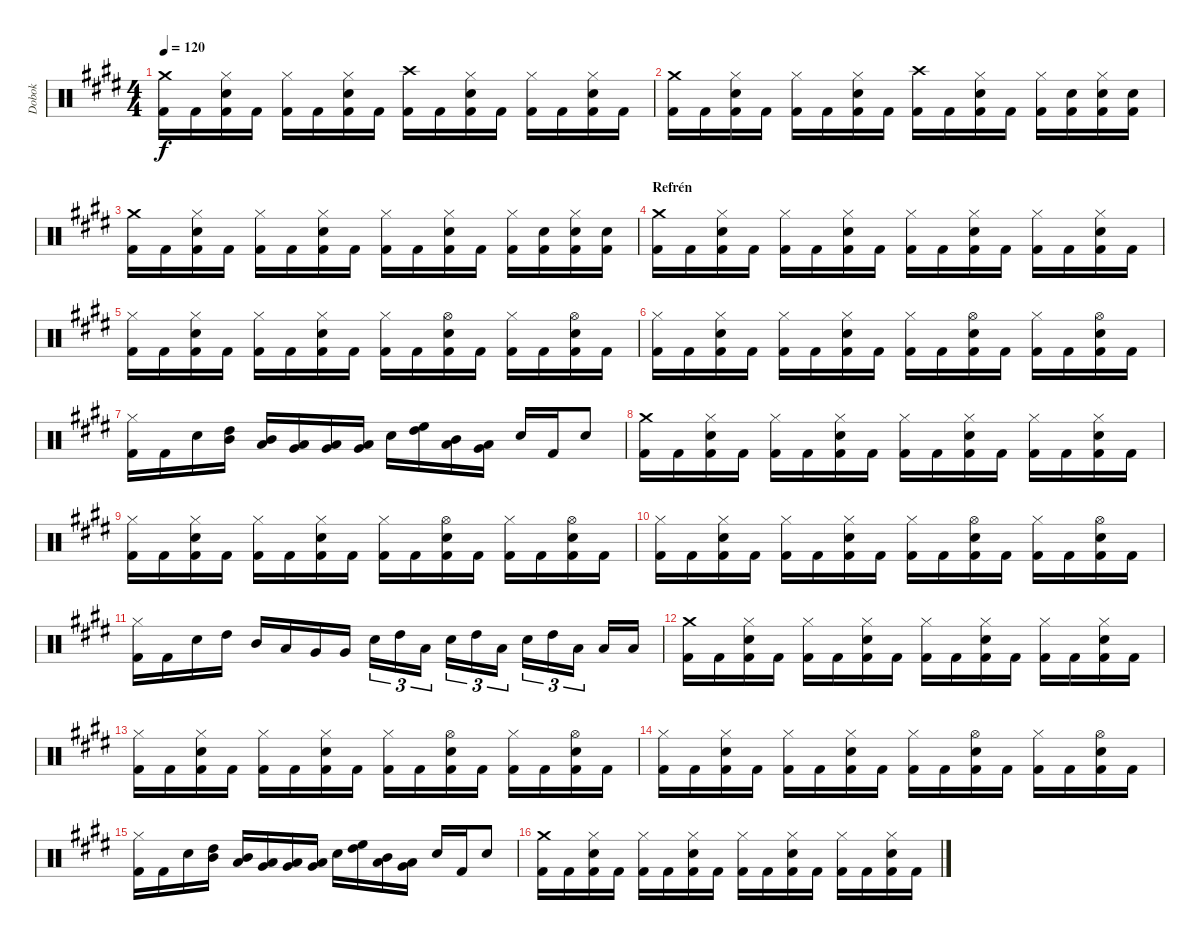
\track ("Dobok" "Dobok") {instrument percussion}
\staff {score}
\articulation defaults
\ts (4 4)
\tempo 120
\clef neutral
\ks c#minor
("Crash medium (hit)" "Kick (hit) 2").16{dy f} "Kick (hit) 2".16 ("Hi-Hat (closed)" "Snare (hit) 2" "Kick (hit) 2").16 "Kick (hit) 2".16 ("Hi-Hat (closed)" "Kick (hit) 2").16 "Kick (hit) 2".16 ("Hi-Hat (closed)" "Snare (hit) 2" "Kick (hit) 2").16 "Kick (hit) 2".16 ("Crash high (hit)" "Kick (hit) 2").16 "Kick (hit) 2".16 ("Hi-Hat (closed)" "Snare (hit) 2" "Kick (hit) 2").16 "Kick (hit) 2".16 ("Hi-Hat (closed)" "Kick (hit) 2").16 "Kick (hit) 2".16 ("Hi-Hat (closed)" "Snare (hit) 2" "Kick (hit) 2").16 "Kick (hit) 2".16 |
("Crash medium (hit)" "Kick (hit) 2").16 "Kick (hit) 2".16 ("Hi-Hat (closed)" "Snare (hit) 2" "Kick (hit) 2").16 "Kick (hit) 2".16 ("Hi-Hat (closed)" "Kick (hit) 2").16 "Kick (hit) 2".16 ("Hi-Hat (closed)" "Snare (hit) 2" "Kick (hit) 2").16 "Kick (hit) 2".16 ("Crash high (hit)" "Kick (hit) 2").16 "Kick (hit) 2".16 ("Hi-Hat (closed)" "Snare (hit) 2" "Kick (hit) 2").16 "Kick (hit) 2".16 ("Hi-Hat (closed)" "Kick (hit) 2").16 ("Snare (hit) 2" "Kick (hit) 2").16 ("Hi-Hat (closed)" "Snare (hit) 2" "Kick (hit) 2").16 ("Snare (hit) 2" "Kick (hit) 2").16 |
("Crash medium (hit)" "Kick (hit) 2").16 "Kick (hit) 2".16 ("Hi-Hat (closed)" "Snare (hit) 2" "Kick (hit) 2").16 "Kick (hit) 2".16 ("Hi-Hat (closed)" "Kick (hit) 2").16 "Kick (hit) 2".16 ("Hi-Hat (closed)" "Snare (hit) 2" "Kick (hit) 2").16 "Kick (hit) 2".16 ("Hi-Hat (closed)" "Kick (hit) 2").16 "Kick (hit) 2".16 ("Hi-Hat (closed)" "Snare (hit) 2" "Kick (hit) 2").16 "Kick (hit) 2".16 ("Hi-Hat (closed)" "Kick (hit) 2").16 ("Snare (hit) 2" "Kick (hit) 2").16 ("Hi-Hat (closed)" "Snare (hit) 2" "Kick (hit) 2").16 ("Snare (hit) 2" "Kick (hit) 2").16 |
\section ("" "Refrén")
("Crash medium (hit)" "Kick (hit) 2").16 "Kick (hit) 2".16 ("Hi-Hat (closed)" "Snare (hit) 2" "Kick (hit) 2").16 "Kick (hit) 2".16 ("Hi-Hat (closed)" "Kick (hit) 2").16 "Kick (hit) 2".16 ("Hi-Hat (closed)" "Snare (hit) 2" "Kick (hit) 2").16 "Kick (hit) 2".16 ("Hi-Hat (closed)" "Kick (hit) 2").16 "Kick (hit) 2".16 ("Hi-Hat (closed)" "Snare (hit) 2" "Kick (hit) 2").16 "Kick (hit) 2".16 ("Hi-Hat (closed)" "Kick (hit) 2").16 "Kick (hit) 2".16 ("Hi-Hat (closed)" "Snare (hit) 2" "Kick (hit) 2").16 "Kick (hit) 2".16 |
("Hi-Hat (closed)" "Kick (hit) 2").16 "Kick (hit) 2".16 ("Hi-Hat (closed)" "Snare (hit) 2" "Kick (hit) 2").16 "Kick (hit) 2".16 ("Hi-Hat (closed)" "Kick (hit) 2").16 "Kick (hit) 2".16 ("Hi-Hat (closed)" "Snare (hit) 2" "Kick (hit) 2").16 "Kick (hit) 2".16 ("Hi-Hat (closed)" "Kick (hit) 2").16 "Kick (hit) 2".16 ("Hi-Hat (open)" "Snare (hit) 2" "Kick (hit) 2").16 "Kick (hit) 2".16 ("Hi-Hat (closed)" "Kick (hit) 2").16 "Kick (hit) 2".16 ("Hi-Hat (open)" "Snare (hit) 2" "Kick (hit) 2").16 "Kick (hit) 2".16 |
("Hi-Hat (closed)" "Kick (hit) 2").16 "Kick (hit) 2".16 ("Hi-Hat (closed)" "Snare (hit) 2" "Kick (hit) 2").16 "Kick (hit) 2".16 ("Hi-Hat (closed)" "Kick (hit) 2").16 "Kick (hit) 2".16 ("Hi-Hat (closed)" "Snare (hit) 2" "Kick (hit) 2").16 "Kick (hit) 2".16 ("Hi-Hat (closed)" "Kick (hit) 2").16 "Kick (hit) 2".16 ("Hi-Hat (open)" "Snare (hit) 2" "Kick (hit) 2").16 "Kick (hit) 2".16 ("Hi-Hat (closed)" "Kick (hit) 2").16 "Kick (hit) 2".16 ("Hi-Hat (open)" "Snare (hit) 2" "Kick (hit) 2").16 "Kick (hit) 2".16 |
("Hi-Hat (closed)" "Kick (hit) 2").16 "Kick (hit) 2".16 "Snare (hit) 2".16 ("High Tom (hit)" "Mid Tom (hit)").16 ("Mid Tom (hit)" "Low Tom (hit)").16 ("Low Tom (hit)" "Very Low Tom (hit)").16 ("Very Low Tom (hit)" "Low Floor Tom (hit)").16 ("Very Low Tom (hit)" "Low Floor Tom (hit)").16 "Snare (hit) 2".16 ("High Tom (hit)" "High Floor Tom (hit)").16 ("Low Tom (hit)" "Mid Tom (hit)").16 ("Very Low Tom (hit)" "Low Tom (hit)").16 "Snare (hit) 2".16 "Kick (hit) 2".16 "Snare (hit) 2".8 |
("Crash medium (hit)" "Kick (hit) 2").16 "Kick (hit) 2".16 ("Hi-Hat (closed)" "Snare (hit) 2" "Kick (hit) 2").16 "Kick (hit) 2".16 ("Hi-Hat (closed)" "Kick (hit) 2").16 "Kick (hit) 2".16 ("Hi-Hat (closed)" "Snare (hit) 2" "Kick (hit) 2").16 "Kick (hit) 2".16 ("Hi-Hat (closed)" "Kick (hit) 2").16 "Kick (hit) 2".16 ("Hi-Hat (closed)" "Snare (hit) 2" "Kick (hit) 2").16 "Kick (hit) 2".16 ("Hi-Hat (closed)" "Kick (hit) 2").16 "Kick (hit) 2".16 ("Hi-Hat (closed)" "Snare (hit) 2" "Kick (hit) 2").16 "Kick (hit) 2".16 |
("Hi-Hat (closed)" "Kick (hit) 2").16 "Kick (hit) 2".16 ("Hi-Hat (closed)" "Snare (hit) 2" "Kick (hit) 2").16 "Kick (hit) 2".16 ("Hi-Hat (closed)" "Kick (hit) 2").16 "Kick (hit) 2".16 ("Hi-Hat (closed)" "Snare (hit) 2" "Kick (hit) 2").16 "Kick (hit) 2".16 ("Hi-Hat (closed)" "Kick (hit) 2").16 "Kick (hit) 2".16 ("Hi-Hat (open)" "Snare (hit) 2" "Kick (hit) 2").16 "Kick (hit) 2".16 ("Hi-Hat (closed)" "Kick (hit) 2").16 "Kick (hit) 2".16 ("Hi-Hat (open)" "Snare (hit) 2" "Kick (hit) 2").16 "Kick (hit) 2".16 |
("Hi-Hat (closed)" "Kick (hit) 2").16 "Kick (hit) 2".16 ("Hi-Hat (closed)" "Snare (hit) 2" "Kick (hit) 2").16 "Kick (hit) 2".16 ("Hi-Hat (closed)" "Kick (hit) 2").16 "Kick (hit) 2".16 ("Hi-Hat (closed)" "Snare (hit) 2" "Kick (hit) 2").16 "Kick (hit) 2".16 ("Hi-Hat (closed)" "Kick (hit) 2").16 "Kick (hit) 2".16 ("Hi-Hat (open)" "Snare (hit) 2" "Kick (hit) 2").16 "Kick (hit) 2".16 ("Hi-Hat (closed)" "Kick (hit) 2").16 "Kick (hit) 2".16 ("Hi-Hat (open)" "Snare (hit) 2" "Kick (hit) 2").16 "Kick (hit) 2".16 |
("Hi-Hat (closed)" "Kick (hit) 2").16 "Kick (hit) 2".16 "Snare (hit) 2".16 "High Tom (hit)".16 "Mid Tom (hit)".16 "Low Tom (hit)".16 "Very Low Tom (hit)".16 "Very Low Tom (hit)".16 "Snare (hit) 2".16{tu (3 2)} "High Tom (hit)".16{tu (3 2)} "Low Tom (hit)".16{tu (3 2)} "Snare (hit) 2".16{tu (3 2)} "High Tom (hit)".16{tu (3 2)} "Low Tom (hit)".16{tu (3 2)} "Snare (hit) 2".16{tu (3 2)} "High Tom (hit)".16{tu (3 2)} "Low Tom (hit)".16{tu (3 2)} "Low Tom (hit)".16 "Low Tom (hit)".16 |
("Crash medium (hit)" "Kick (hit) 2").16 "Kick (hit) 2".16 ("Hi-Hat (closed)" "Snare (hit) 2" "Kick (hit) 2").16 "Kick (hit) 2".16 ("Hi-Hat (closed)" "Kick (hit) 2").16 "Kick (hit) 2".16 ("Hi-Hat (closed)" "Snare (hit) 2" "Kick (hit) 2").16 "Kick (hit) 2".16 ("Hi-Hat (closed)" "Kick (hit) 2").16 "Kick (hit) 2".16 ("Hi-Hat (closed)" "Snare (hit) 2" "Kick (hit) 2").16 "Kick (hit) 2".16 ("Hi-Hat (closed)" "Kick (hit) 2").16 "Kick (hit) 2".16 ("Hi-Hat (closed)" "Snare (hit) 2" "Kick (hit) 2").16 "Kick (hit) 2".16 |
("Hi-Hat (closed)" "Kick (hit) 2").16 "Kick (hit) 2".16 ("Hi-Hat (closed)" "Snare (hit) 2" "Kick (hit) 2").16 "Kick (hit) 2".16 ("Hi-Hat (closed)" "Kick (hit) 2").16 "Kick (hit) 2".16 ("Hi-Hat (closed)" "Snare (hit) 2" "Kick (hit) 2").16 "Kick (hit) 2".16 ("Hi-Hat (closed)" "Kick (hit) 2").16 "Kick (hit) 2".16 ("Hi-Hat (open)" "Snare (hit) 2" "Kick (hit) 2").16 "Kick (hit) 2".16 ("Hi-Hat (closed)" "Kick (hit) 2").16 "Kick (hit) 2".16 ("Hi-Hat (open)" "Snare (hit) 2" "Kick (hit) 2").16 "Kick (hit) 2".16 |
("Hi-Hat (closed)" "Kick (hit) 2").16 "Kick (hit) 2".16 ("Hi-Hat (closed)" "Snare (hit) 2" "Kick (hit) 2").16 "Kick (hit) 2".16 ("Hi-Hat (closed)" "Kick (hit) 2").16 "Kick (hit) 2".16 ("Hi-Hat (closed)" "Snare (hit) 2" "Kick (hit) 2").16 "Kick (hit) 2".16 ("Hi-Hat (closed)" "Kick (hit) 2").16 "Kick (hit) 2".16 ("Hi-Hat (open)" "Snare (hit) 2" "Kick (hit) 2").16 "Kick (hit) 2".16 ("Hi-Hat (closed)" "Kick (hit) 2").16 "Kick (hit) 2".16 ("Hi-Hat (open)" "Snare (hit) 2" "Kick (hit) 2").16 "Kick (hit) 2".16 |
("Hi-Hat (closed)" "Kick (hit) 2").16 "Kick (hit) 2".16 "Snare (hit) 2".16 ("High Tom (hit)" "Mid Tom (hit)").16 ("Mid Tom (hit)" "Low Tom (hit)").16 ("Low Tom (hit)" "Very Low Tom (hit)").16 ("Very Low Tom (hit)" "Low Floor Tom (hit)").16 ("Very Low Tom (hit)" "Low Floor Tom (hit)").16 "Snare (hit) 2".16 ("High Tom (hit)" "High Floor Tom (hit)").16 ("Low Tom (hit)" "Mid Tom (hit)").16 ("Very Low Tom (hit)" "Low Tom (hit)").16 "Snare (hit) 2".16 "Kick (hit) 2".16 "Snare (hit) 2".8 |
("Crash medium (hit)" "Kick (hit) 2").16 "Kick (hit) 2".16 ("Hi-Hat (closed)" "Snare (hit) 2" "Kick (hit) 2").16 "Kick (hit) 2".16 ("Hi-Hat (closed)" "Kick (hit) 2").16 "Kick (hit) 2".16 ("Hi-Hat (closed)" "Snare (hit) 2" "Kick (hit) 2").16 "Kick (hit) 2".16 ("Hi-Hat (closed)" "Kick (hit) 2").16 "Kick (hit) 2".16 ("Hi-Hat (closed)" "Snare (hit) 2" "Kick (hit) 2").16 "Kick (hit) 2".16 ("Hi-Hat (closed)" "Kick (hit) 2").16 "Kick (hit) 2".16 ("Hi-Hat (closed)" "Snare (hit) 2" "Kick (hit) 2").16 "Kick (hit) 2".16
